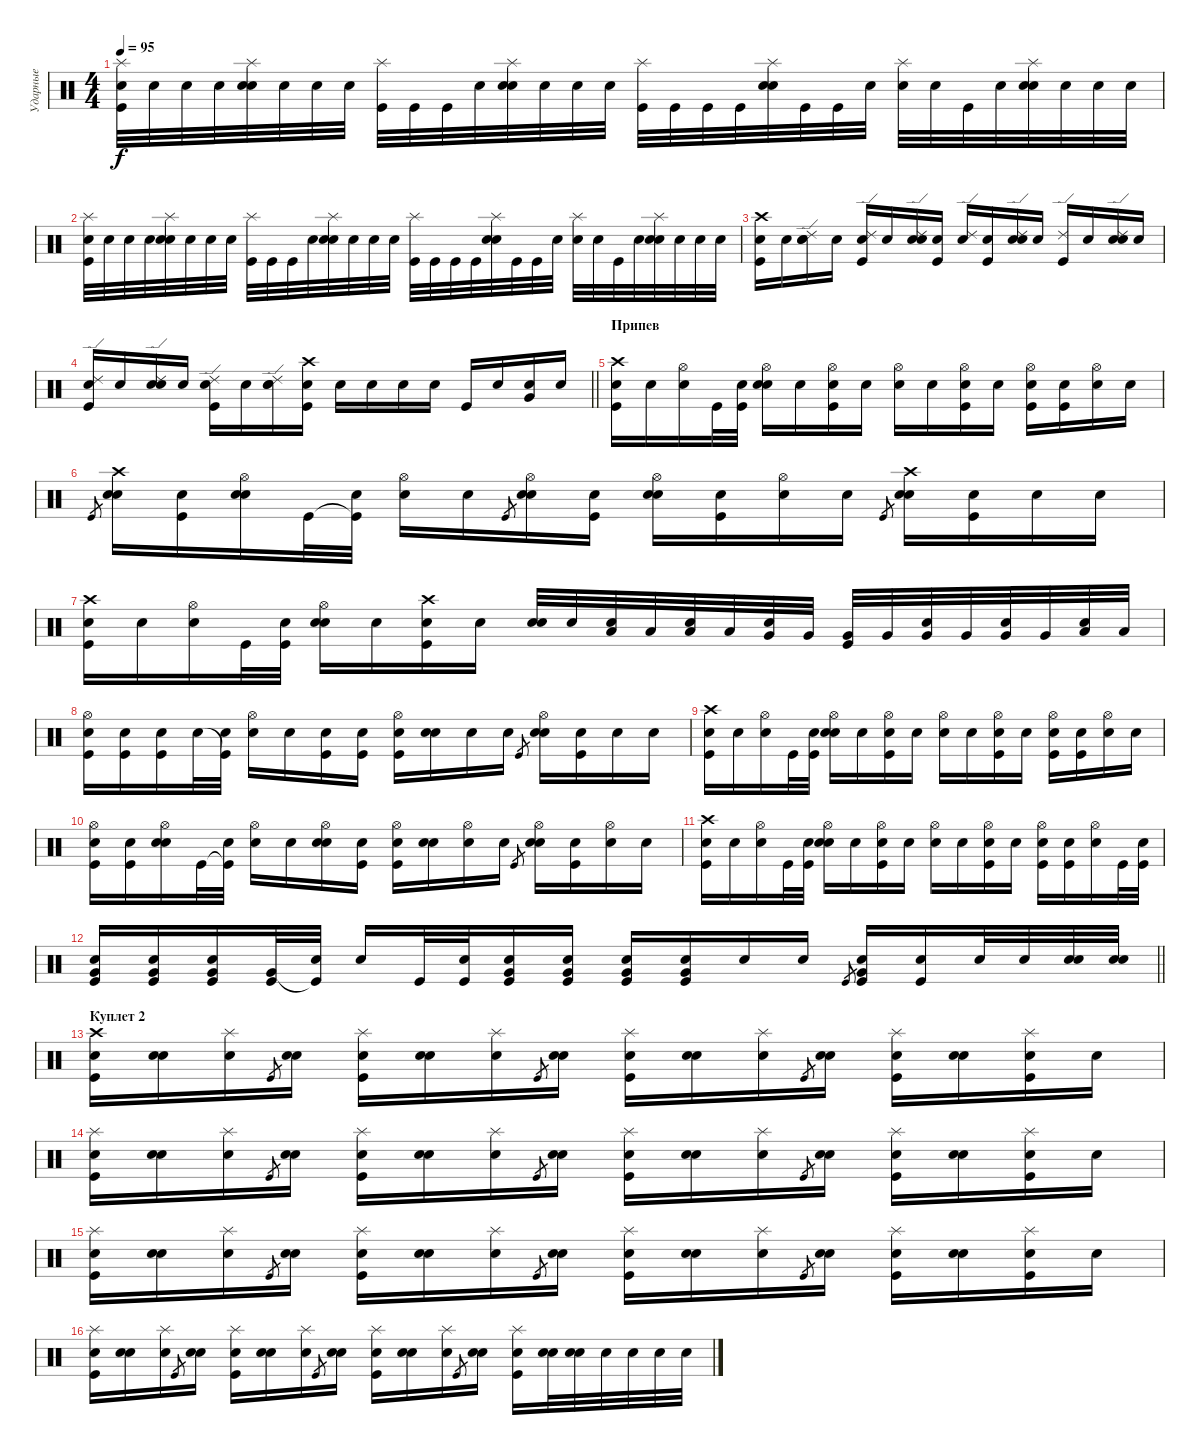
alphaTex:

\track ("Ударные" "Ударные") {instrument percussion}
\staff {score}
\articulation defaults
\ts (4 4)
\tempo 95
\clef neutral
\ks c
("Splash (hit)" "Kick (hit)" "Snare (hit)"{x}).32{dy f} "Snare (hit)"{x}.32 "Snare (hit)"{x}.32 "Snare (hit)"{x}.32 ("Splash (hit)" "Electric Snare (hit)" "Snare (hit)"{x}).32 "Snare (hit)"{x}.32 "Snare (hit)"{x}.32 "Snare (hit)"{x}.32 ("Splash (hit)" "Kick (hit)").32 "Kick (hit)".32 "Kick (hit)".32 "Snare (hit)"{x}.32 ("Splash (hit)" "Electric Snare (hit)" "Snare (hit)"{x}).32 "Snare (hit)"{x}.32 "Snare (hit)"{x}.32 "Snare (hit)"{x}.32 ("Splash (hit)" "Kick (hit)").32 "Kick (hit)".32 "Kick (hit)".32 "Kick (hit)".32 ("Splash (hit)" "Electric Snare (hit)" "Snare (hit)"{x}).32 "Kick (hit)"{x}.32 "Kick (hit)".32 "Snare (hit)"{x}.32 ("Splash (hit)" "Snare (hit)"{x}).32 "Snare (hit)"{x}.32 "Kick (hit)".32 "Snare (hit)"{x}.32 ("Splash (hit)" "Electric Snare (hit)" "Snare (hit)"{x}).32 "Snare (hit)"{x}.32 "Snare (hit)"{x}.32 "Snare (hit)"{x}.32 |
("Splash (hit)" "Kick (hit)" "Snare (hit)"{x}).32 "Snare (hit)"{x}.32 "Snare (hit)"{x}.32 "Snare (hit)"{x}.32 ("Splash (hit)" "Electric Snare (hit)" "Snare (hit)"{x}).32 "Snare (hit)"{x}.32 "Snare (hit)"{x}.32 "Snare (hit)"{x}.32 ("Splash (hit)" "Kick (hit)").32 "Kick (hit)".32 "Kick (hit)".32 "Snare (hit)"{x}.32 ("Splash (hit)" "Electric Snare (hit)" "Snare (hit)"{x}).32 "Snare (hit)"{x}.32 "Snare (hit)"{x}.32 "Snare (hit)"{x}.32 ("Splash (hit)" "Kick (hit)").32 "Kick (hit)".32 "Kick (hit)".32 "Kick (hit)".32 ("Splash (hit)" "Electric Snare (hit)" "Snare (hit)"{x}).32 "Kick (hit)"{x}.32 "Kick (hit)".32 "Snare (hit)"{x}.32 ("Splash (hit)" "Snare (hit)"{x}).32 "Snare (hit)"{x}.32 "Kick (hit)".32 "Snare (hit)"{x}.32 ("Splash (hit)" "Electric Snare (hit)" "Snare (hit)"{x}).32 "Snare (hit)"{x}.32 "Snare (hit)"{x}.32 "Snare (hit)"{x}.32 |
("Crash high (hit)" "Kick (hit)" "Snare (hit)"{x}).16 "Snare (hit)"{x}.16 ("Ride (edge) 2" "Electric Snare (hit)" "Snare (hit)"{x}).16 "Snare (hit)"{x}.16 ("Ride (edge) 2" "Kick (hit)" "Snare (hit)"{x}).16 "Snare (hit)"{x}.16 ("Ride (edge) 2" "Electric Snare (hit)" "Snare (hit)"{x}).16 ("Kick (hit)" "Snare (hit)"{x}).16 ("Ride (edge) 2" "Snare (hit)"{x}).16 ("Kick (hit)" "Snare (hit)"{x}).16 ("Ride (edge) 2" "Electric Snare (hit)" "Snare (hit)"{x}).16 "Snare (hit)"{x}.16 ("Ride (edge) 2" "Kick (hit)").16 "Snare (hit)"{x}.16 ("Ride (edge) 2" "Electric Snare (hit)" "Snare (hit)"{x}).16 "Snare (hit)"{x}.16 |
\barLineRight lightlight
("Ride (edge) 2" "Kick (hit)" "Snare (hit)"{x}).16 "Snare (hit)"{x}.16 ("Ride (edge) 2" "Electric Snare (hit)" "Snare (hit)"{x}).16 "Snare (hit)"{x}.16 ("Ride (edge) 2" "Kick (hit)" "Snare (hit)"{x}).16 "Snare (hit)"{x}.16 ("Ride (edge) 2" "Electric Snare (hit)" "Snare (hit)"{x}).16 ("Crash high (hit)" "Kick (hit)" "Snare (hit)"{x}).16 "Snare (hit)"{x}.16 "Snare (hit)"{x}.16 "Snare (hit)"{x}.16 "Snare (hit)"{x}.16 "Kick (hit)"{x}.16 "Snare (hit)"{x}.16 ("Very Low Tom (hit)" "Snare (hit)"{x}).16 "Snare (hit)"{x}.16 |
\section ("" "Припев")
("Crash high (hit)" "Kick (hit)" "Snare (hit)"{x}).16 "Snare (hit)"{x}.16 ("Hi-Hat (open)" "Snare (hit)"{x}).16 "Kick (hit)".32 ("Kick (hit)" "Snare (hit)"{x}).32 ("Hi-Hat (open)" "Electric Snare (hit)" "Snare (hit)"{x}).16 "Snare (hit)"{x}.16 ("Hi-Hat (open)" "Kick (hit)" "Snare (hit)"{x}).16 "Snare (hit)"{x}.16 ("Hi-Hat (open)" "Snare (hit)"{x}).16 "Snare (hit)"{x}.16 ("Hi-Hat (open)" "Kick (hit)" "Snare (hit)"{x}).16 "Snare (hit)"{x}.16 ("Hi-Hat (open)" "Electric Snare (hit)" "Kick (hit)"{x}).16 ("Kick (hit)" "Snare (hit)"{x}).16 ("Hi-Hat (open)" "Snare (hit)"{x}).16 "Snare (hit)"{x}.16 |
"Kick (hit)".8{gr} ("Crash high (hit)" "Electric Snare (hit)" "Snare (hit)"{x}).16 ("Kick (hit)" "Snare (hit)"{x}).16 ("Hi-Hat (open)" "Electric Snare (hit)" "Snare (hit)"{x}).16 "Kick (hit)".32 ("Kick (hit)"{t} "Snare (hit)"{x}).32 ("Hi-Hat (open)" "Snare (hit)"{x}).16 "Snare (hit)"{x}.16 "Kick (hit)".8{gr} ("Hi-Hat (open)" "Electric Snare (hit)" "Snare (hit)"{x}).16 ("Kick (hit)" "Snare (hit)"{x}).16 ("Hi-Hat (open)" "Electric Snare (hit)" "Snare (hit)"{x}).16 ("Kick (hit)" "Snare (hit)"{x}).16 ("Hi-Hat (open)" "Snare (hit)"{x}).16 "Snare (hit)"{x}.16 "Kick (hit)".8{gr} ("Crash high (hit)" "Electric Snare (hit)" "Snare (hit)"{x}).16 ("Kick (hit)" "Snare (hit)"{x}).16 "Snare (hit)"{x}.16 "Snare (hit)"{x}.16 |
("Crash high (hit)" "Kick (hit)" "Snare (hit)"{x}).16 "Snare (hit)"{x}.16 ("Hi-Hat (open)" "Snare (hit)"{x}).16 "Kick (hit)".32 ("Kick (hit)" "Snare (hit)"{x}).32 ("Hi-Hat (open)" "Electric Snare (hit)" "Snare (hit)"{x}).16 "Snare (hit)"{x}.16 ("Crash high (hit)" "Kick (hit)" "Snare (hit)"{x}).16 "Snare (hit)"{x}.16 ("Electric Snare (hit)" "Snare (hit)"{x}).32 "Electric Snare (hit)".32 ("Low Tom (hit)" "Snare (hit)"{x}).32 "Low Tom (hit)".32 ("Low Tom (hit)" "Snare (hit)"{x}).32 "Low Tom (hit)".32 ("Very Low Tom (hit)" "Snare (hit)"{x}).32 "Very Low Tom (hit)".32 ("Very Low Tom (hit)" "Kick (hit)"{x}).32 "Very Low Tom (hit)".32 ("Very Low Tom (hit)" "Snare (hit)"{x}).32 "Very Low Tom (hit)".32 ("Very Low Tom (hit)" "Snare (hit)"{x}).32 "Very Low Tom (hit)".32 ("Low Floor Tom (hit)" "Snare (hit)"{x}).32 "Low Floor Tom (hit)".32 |
("Hi-Hat (open)" "Kick (hit)" "Snare (hit)"{x}).16 ("Kick (hit)" "Snare (hit)"{x}).16 ("Kick (hit)" "Snare (hit)"{x}).16 "Electric Snare (hit)".32 ("Kick (hit)"{t} "Snare (hit)"{x}).32 ("Hi-Hat (open)" "Snare (hit)"{x}).16 "Snare (hit)"{x}.16 ("Kick (hit)" "Snare (hit)"{x}).16 ("Kick (hit)" "Snare (hit)"{x}).16 ("Hi-Hat (open)" "Kick (hit)" "Snare (hit)"{x}).16 ("Electric Snare (hit)" "Snare (hit)"{x}).16 "Snare (hit)"{x}.16 "Snare (hit)"{x}.16 "Kick (hit)".8{gr} ("Hi-Hat (open)" "Electric Snare (hit)" "Snare (hit)"{x}).16 ("Kick (hit)" "Snare (hit)"{x}).16 "Snare (hit)"{x}.16 "Snare (hit)"{x}.16 |
("Crash high (hit)" "Kick (hit)" "Snare (hit)"{x}).16 "Snare (hit)"{x}.16 ("Hi-Hat (open)" "Snare (hit)"{x}).16 "Kick (hit)".32 ("Kick (hit)" "Snare (hit)"{x}).32 ("Hi-Hat (open)" "Electric Snare (hit)" "Snare (hit)"{x}).16 "Snare (hit)"{x}.16 ("Hi-Hat (open)" "Kick (hit)" "Snare (hit)"{x}).16 "Snare (hit)"{x}.16 ("Hi-Hat (open)" "Snare (hit)"{x}).16 "Snare (hit)"{x}.16 ("Hi-Hat (open)" "Kick (hit)" "Snare (hit)"{x}).16 "Snare (hit)"{x}.16 ("Hi-Hat (open)" "Electric Snare (hit)" "Kick (hit)"{x}).16 ("Kick (hit)" "Snare (hit)"{x}).16 ("Hi-Hat (open)" "Snare (hit)"{x}).16 "Snare (hit)"{x}.16 |
("Hi-Hat (open)" "Kick (hit)" "Snare (hit)"{x}).16 ("Kick (hit)" "Snare (hit)"{x}).16 ("Hi-Hat (open)" "Electric Snare (hit)" "Snare (hit)"{x}).16 "Kick (hit)".32 ("Kick (hit)"{t} "Snare (hit)"{x}).32 ("Hi-Hat (open)" "Snare (hit)"{x}).16 "Snare (hit)"{x}.16 ("Hi-Hat (open)" "Electric Snare (hit)" "Snare (hit)"{x}).16 ("Kick (hit)" "Snare (hit)"{x}).16 ("Hi-Hat (open)" "Kick (hit)" "Snare (hit)"{x}).16 ("Electric Snare (hit)" "Snare (hit)"{x}).16 ("Hi-Hat (open)" "Snare (hit)"{x}).16 "Snare (hit)"{x}.16 "Kick (hit)".8{gr} ("Hi-Hat (open)" "Electric Snare (hit)" "Snare (hit)"{x}).16 ("Kick (hit)" "Snare (hit)"{x}).16 ("Hi-Hat (open)" "Snare (hit)"{x}).16 "Snare (hit)"{x}.16 |
("Crash high (hit)" "Kick (hit)" "Snare (hit)"{x}).16 "Snare (hit)"{x}.16 ("Hi-Hat (open)" "Snare (hit)"{x}).16 "Kick (hit)".32 ("Kick (hit)" "Snare (hit)"{x}).32 ("Hi-Hat (open)" "Electric Snare (hit)" "Snare (hit)"{x}).16 "Snare (hit)"{x}.16 ("Hi-Hat (open)" "Kick (hit)" "Snare (hit)"{x}).16 "Snare (hit)"{x}.16 ("Hi-Hat (open)" "Snare (hit)"{x}).16 "Snare (hit)"{x}.16 ("Hi-Hat (open)" "Kick (hit)" "Snare (hit)"{x}).16 "Snare (hit)"{x}.16 ("Hi-Hat (open)" "Electric Snare (hit)" "Kick (hit)"{x}).16 ("Kick (hit)" "Snare (hit)"{x}).16 ("Hi-Hat (open)" "Snare (hit)"{x}).16 "Kick (hit)".32 ("Kick (hit)" "Snare (hit)"{x}).32 |
\barLineRight lightlight
("Very Low Tom (hit)" "Kick (hit)" "Snare (hit)"{x}).16 ("Very Low Tom (hit)" "Kick (hit)" "Snare (hit)"{x}).16 ("Very Low Tom (hit)" "Kick (hit)" "Snare (hit)"{x}).16 ("Very Low Tom (hit)" "Kick (hit)").32 ("Kick (hit)"{t} "Snare (hit)"{x}).32 "Snare (hit)"{x}.16 "Kick (hit)".32 ("Kick (hit)" "Snare (hit)"{x}).32 ("Very Low Tom (hit)" "Kick (hit)" "Snare (hit)"{x}).16 ("Very Low Tom (hit)" "Kick (hit)" "Snare (hit)"{x}).16 ("Very Low Tom (hit)" "Kick (hit)" "Snare (hit)"{x}).16 ("Very Low Tom (hit)" "Kick (hit)" "Snare (hit)"{x}).16 "Snare (hit)"{x}.16 "Snare (hit)"{x}.16 "Kick (hit)".8{gr} ("Very Low Tom (hit)" "Kick (hit)" "Snare (hit)"{x}).16 ("Kick (hit)" "Snare (hit)"{x}).16 "Electric Snare (hit)".32 "Electric Snare (hit)".32 ("Electric Snare (hit)" "Snare (hit)"{x}).32 ("Electric Snare (hit)" "Snare (hit)"{x}).32 |
\section ("" "Куплет 2")
("Crash high (hit)" "Kick (hit)" "Snare (hit)"{x}).16 ("Electric Snare (hit)" "Snare (hit)"{x}).16 ("Splash (hit)" "Snare (hit)"{x}).16 "Kick (hit)".8{gr} ("Electric Snare (hit)" "Snare (hit)"{x}).16 ("Splash (hit)" "Kick (hit)" "Snare (hit)"{x}).16 ("Electric Snare (hit)" "Snare (hit)"{x}).16 ("Splash (hit)" "Snare (hit)"{x}).16 "Kick (hit)".8{gr} ("Electric Snare (hit)" "Snare (hit)"{x}).16 ("Splash (hit)" "Kick (hit)" "Snare (hit)"{x}).16 ("Electric Snare (hit)" "Snare (hit)"{x}).16 ("Splash (hit)" "Snare (hit)"{x}).16 "Kick (hit)".8{gr} ("Electric Snare (hit)" "Snare (hit)"{x}).16 ("Splash (hit)" "Kick (hit)" "Snare (hit)"{x}).16 ("Electric Snare (hit)" "Snare (hit)"{x}).16 ("Splash (hit)" "Kick (hit)" "Snare (hit)"{x}).16 "Electric Snare (hit)".16 |
("Splash (hit)" "Kick (hit)" "Snare (hit)"{x}).16 ("Electric Snare (hit)" "Snare (hit)"{x}).16 ("Splash (hit)" "Snare (hit)"{x}).16 "Kick (hit)".8{gr} ("Electric Snare (hit)" "Snare (hit)"{x}).16 ("Splash (hit)" "Kick (hit)" "Snare (hit)"{x}).16 ("Electric Snare (hit)" "Snare (hit)"{x}).16 ("Splash (hit)" "Snare (hit)"{x}).16 "Kick (hit)".8{gr} ("Electric Snare (hit)" "Snare (hit)"{x}).16 ("Splash (hit)" "Kick (hit)" "Snare (hit)"{x}).16 ("Electric Snare (hit)" "Snare (hit)"{x}).16 ("Splash (hit)" "Snare (hit)"{x}).16 "Kick (hit)".8{gr} ("Electric Snare (hit)" "Snare (hit)"{x}).16 ("Splash (hit)" "Kick (hit)" "Snare (hit)"{x}).16 ("Electric Snare (hit)" "Snare (hit)"{x}).16 ("Splash (hit)" "Kick (hit)" "Snare (hit)"{x}).16 "Electric Snare (hit)".16 |
("Splash (hit)" "Kick (hit)" "Snare (hit)"{x}).16 ("Electric Snare (hit)" "Snare (hit)"{x}).16 ("Splash (hit)" "Snare (hit)"{x}).16 "Kick (hit)".8{gr} ("Electric Snare (hit)" "Snare (hit)"{x}).16 ("Splash (hit)" "Kick (hit)" "Snare (hit)"{x}).16 ("Electric Snare (hit)" "Snare (hit)"{x}).16 ("Splash (hit)" "Snare (hit)"{x}).16 "Kick (hit)".8{gr} ("Electric Snare (hit)" "Snare (hit)"{x}).16 ("Splash (hit)" "Kick (hit)" "Snare (hit)"{x}).16 ("Electric Snare (hit)" "Snare (hit)"{x}).16 ("Splash (hit)" "Snare (hit)"{x}).16 "Kick (hit)".8{gr} ("Electric Snare (hit)" "Snare (hit)"{x}).16 ("Splash (hit)" "Kick (hit)" "Snare (hit)"{x}).16 ("Electric Snare (hit)" "Snare (hit)"{x}).16 ("Splash (hit)" "Kick (hit)" "Snare (hit)"{x}).16 "Electric Snare (hit)".16 |
("Splash (hit)" "Kick (hit)" "Snare (hit)"{x}).16 ("Electric Snare (hit)" "Snare (hit)"{x}).16 ("Splash (hit)" "Snare (hit)"{x}).16 "Kick (hit)".8{gr} ("Electric Snare (hit)" "Snare (hit)"{x}).16 ("Splash (hit)" "Kick (hit)" "Snare (hit)"{x}).16 ("Electric Snare (hit)" "Snare (hit)"{x}).16 ("Splash (hit)" "Snare (hit)"{x}).16 "Kick (hit)".8{gr} ("Electric Snare (hit)" "Snare (hit)"{x}).16 ("Splash (hit)" "Kick (hit)" "Snare (hit)"{x}).16 ("Electric Snare (hit)" "Snare (hit)"{x}).16 ("Splash (hit)" "Snare (hit)"{x}).16 "Kick (hit)".8{gr} ("Electric Snare (hit)" "Snare (hit)"{x}).16 ("Splash (hit)" "Kick (hit)" "Snare (hit)"{x}).16 ("Electric Snare (hit)" "Snare (hit)"{x}).32 ("Electric Snare (hit)" "Snare (hit)"{x}).32 "Electric Snare (hit)".32 "Electric Snare (hit)".32 "Electric Snare (hit)".32 "Electric Snare (hit)".32
